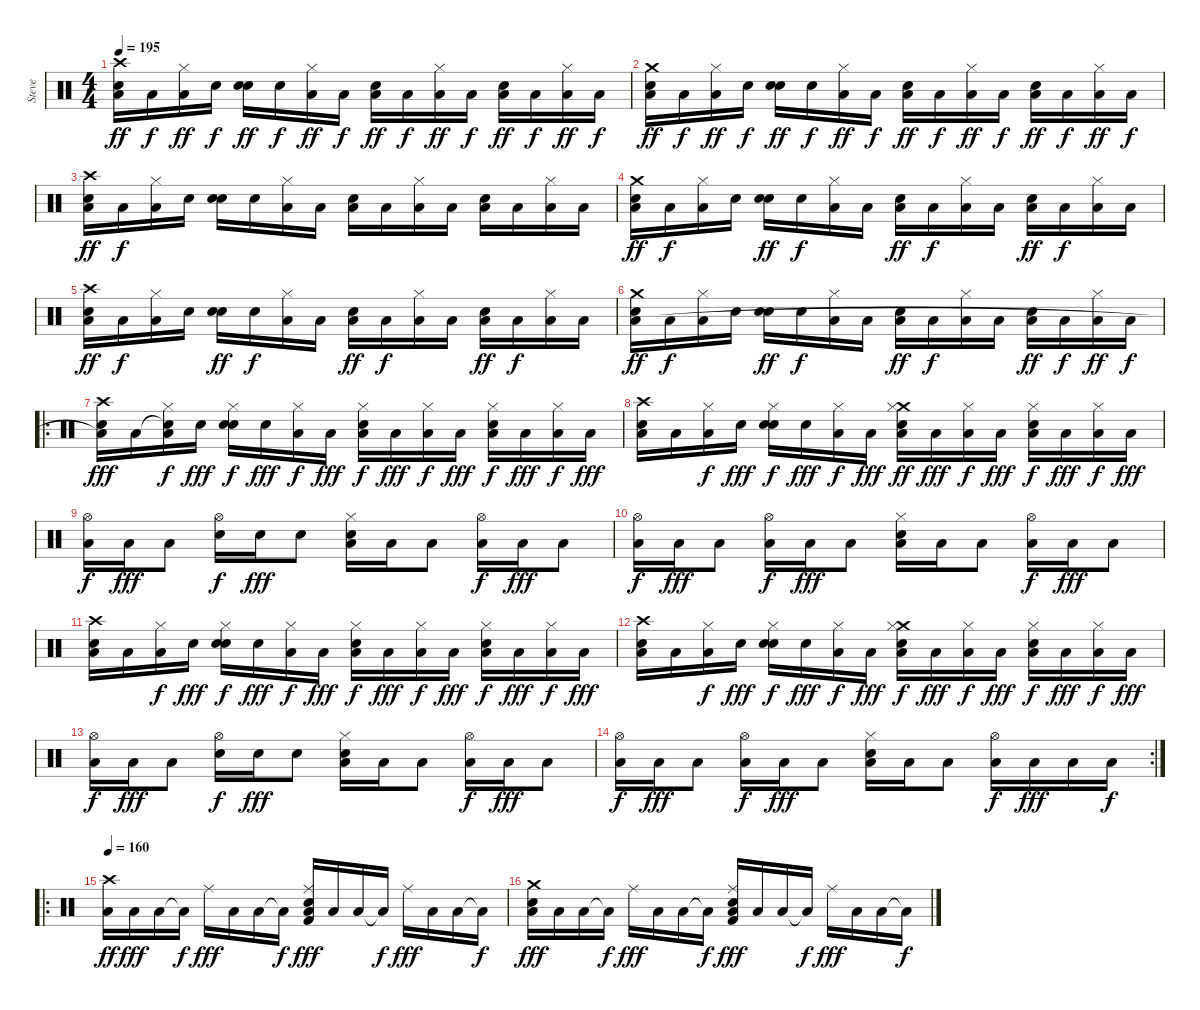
\track ("Steve" "Steve") {instrument percussion}
\staff {score}
\articulation defaults
\ts (4 4)
\tempo 195
\clef neutral
\ks c
("Electric Snare (hit)" "Crash high (hit)" "Low Floor Tom (hit)").16{dy ff} "Low Floor Tom (hit)".16{dy f} ("Hi-Hat (closed)" "Low Floor Tom (hit)").16{dy ff} "Snare (hit)".16{dy f} ("Electric Snare (hit)" "Snare (hit)").16{dy ff} "Snare (hit)".16{dy f} ("Hi-Hat (closed)" "Low Floor Tom (hit)").16{dy ff} "Low Floor Tom (hit)".16{dy f} ("Electric Snare (hit)" "Low Floor Tom (hit)").16{dy ff} "Low Floor Tom (hit)".16{dy f} ("Hi-Hat (closed)" "Low Floor Tom (hit)").16{dy ff} "Low Floor Tom (hit)".16{dy f} ("Electric Snare (hit)" "Low Floor Tom (hit)").16{dy ff} "Low Floor Tom (hit)".16{dy f} ("Hi-Hat (closed)" "Low Floor Tom (hit)").16{dy ff} "Low Floor Tom (hit)".16{dy f} |
("Electric Snare (hit)" "Crash medium (hit)" "Low Floor Tom (hit)").16{dy ff} "Low Floor Tom (hit)".16{dy f} ("Hi-Hat (closed)" "Low Floor Tom (hit)").16{dy ff} "Snare (hit)".16{dy f} ("Electric Snare (hit)" "Snare (hit)").16{dy ff} "Snare (hit)".16{dy f} ("Hi-Hat (closed)" "Low Floor Tom (hit)").16{dy ff} "Low Floor Tom (hit)".16{dy f} ("Electric Snare (hit)" "Low Floor Tom (hit)").16{dy ff} "Low Floor Tom (hit)".16{dy f} ("Hi-Hat (closed)" "Low Floor Tom (hit)").16{dy ff} "Low Floor Tom (hit)".16{dy f} ("Electric Snare (hit)" "Low Floor Tom (hit)").16{dy ff} "Low Floor Tom (hit)".16{dy f} ("Hi-Hat (closed)" "Low Floor Tom (hit)").16{dy ff} "Low Floor Tom (hit)".16{dy f} |
("Electric Snare (hit)" "Crash high (hit)" "Low Floor Tom (hit)").16{dy ff} "Low Floor Tom (hit)".16{dy f} ("Hi-Hat (closed)" "Low Floor Tom (hit)").16 "Snare (hit)".16 ("Electric Snare (hit)" "Snare (hit)").16 "Snare (hit)".16 ("Hi-Hat (closed)" "Low Floor Tom (hit)").16 "Low Floor Tom (hit)".16 ("Electric Snare (hit)" "Low Floor Tom (hit)").16 "Low Floor Tom (hit)".16 ("Hi-Hat (closed)" "Low Floor Tom (hit)").16 "Low Floor Tom (hit)".16 ("Electric Snare (hit)" "Low Floor Tom (hit)").16 "Low Floor Tom (hit)".16 ("Hi-Hat (closed)" "Low Floor Tom (hit)").16 "Low Floor Tom (hit)".16 |
("Electric Snare (hit)" "Crash medium (hit)" "Low Floor Tom (hit)").16{dy ff} "Low Floor Tom (hit)".16{dy f} ("Hi-Hat (closed)" "Low Floor Tom (hit)").16 "Snare (hit)".16 ("Electric Snare (hit)" "Snare (hit)").16{dy ff} "Snare (hit)".16{dy f} ("Hi-Hat (closed)" "Low Floor Tom (hit)").16 "Low Floor Tom (hit)".16 ("Electric Snare (hit)" "Low Floor Tom (hit)").16{dy ff} "Low Floor Tom (hit)".16{dy f} ("Hi-Hat (closed)" "Low Floor Tom (hit)").16 "Low Floor Tom (hit)".16 ("Electric Snare (hit)" "Low Floor Tom (hit)").16{dy ff} "Low Floor Tom (hit)".16{dy f} ("Hi-Hat (closed)" "Low Floor Tom (hit)").16 "Low Floor Tom (hit)".16 |
("Electric Snare (hit)" "Crash high (hit)" "Low Floor Tom (hit)").16{dy ff} "Low Floor Tom (hit)".16{dy f} ("Hi-Hat (closed)" "Low Floor Tom (hit)").16 "Snare (hit)".16 ("Electric Snare (hit)" "Snare (hit)").16{dy ff} "Snare (hit)".16{dy f} ("Hi-Hat (closed)" "Low Floor Tom (hit)").16 "Low Floor Tom (hit)".16 ("Electric Snare (hit)" "Low Floor Tom (hit)").16{dy ff} "Low Floor Tom (hit)".16{dy f} ("Hi-Hat (closed)" "Low Floor Tom (hit)").16 "Low Floor Tom (hit)".16 ("Electric Snare (hit)" "Low Floor Tom (hit)").16{dy ff} "Low Floor Tom (hit)".16{dy f} ("Hi-Hat (closed)" "Low Floor Tom (hit)").16 "Low Floor Tom (hit)".16 |
("Electric Snare (hit)" "Crash medium (hit)" "Low Floor Tom (hit)").16{dy ff} "Low Floor Tom (hit)".16{dy f} ("Hi-Hat (closed)" "Low Floor Tom (hit)").16 "Snare (hit)".16 ("Electric Snare (hit)" "Snare (hit)").16{dy ff} "Snare (hit)".16{dy f} ("Hi-Hat (closed)" "Low Floor Tom (hit)").16 "Low Floor Tom (hit)".16 ("Electric Snare (hit)" "Low Floor Tom (hit)").16{dy ff} "Low Floor Tom (hit)".16{dy f} ("Hi-Hat (closed)" "Low Floor Tom (hit)").16 "Low Floor Tom (hit)".16 ("Electric Snare (hit)" "Low Floor Tom (hit)").16{dy ff} "Low Floor Tom (hit)".16{dy f} ("Hi-Hat (closed)" "Low Floor Tom (hit)").16{dy ff} "Low Floor Tom (hit)".16{dy f} |
\ro
("Electric Snare (hit)" "Crash high (hit)" "Low Floor Tom (hit)"{t}).16{dy fff} "Low Floor Tom (hit)".16 ("Snare (hit)"{t} "Hi-Hat (closed)" "Low Floor Tom (hit)").16{dy f} "Snare (hit)".16{dy fff} ("Electric Snare (hit)" "Hi-Hat (closed)" "Snare (hit)").16{dy f} "Snare (hit)".16{dy fff} ("Hi-Hat (closed)" "Low Floor Tom (hit)").16{dy f} "Low Floor Tom (hit)".16{dy fff} ("Electric Snare (hit)" "Hi-Hat (closed)" "Low Floor Tom (hit)").16{dy f} "Low Floor Tom (hit)".16{dy fff} ("Hi-Hat (closed)" "Low Floor Tom (hit)").16{dy f} "Low Floor Tom (hit)".16{dy fff} ("Electric Snare (hit)" "Hi-Hat (closed)" "Low Floor Tom (hit)").16{dy f} "Low Floor Tom (hit)".16{dy fff} ("Hi-Hat (closed)" "Low Floor Tom (hit)").16{dy f} "Low Floor Tom (hit)".16{dy fff} |
("Electric Snare (hit)" "Crash high (hit)" "Low Floor Tom (hit)").16 "Low Floor Tom (hit)".16 ("Hi-Hat (closed)" "Low Floor Tom (hit)").16{dy f} "Snare (hit)".16{dy fff} ("Electric Snare (hit)" "Hi-Hat (closed)" "Snare (hit)").16{dy f} "Snare (hit)".16{dy fff} ("Hi-Hat (closed)" "Low Floor Tom (hit)").16{dy f} "Low Floor Tom (hit)".16{dy fff} ("Electric Snare (hit)" "Crash medium (hit)" "Hi-Hat (closed)" "Low Floor Tom (hit)").16{dy ff} "Low Floor Tom (hit)".16{dy fff} ("Hi-Hat (closed)" "Low Floor Tom (hit)").16{dy f} "Low Floor Tom (hit)".16{dy fff} ("Electric Snare (hit)" "Hi-Hat (closed)" "Low Floor Tom (hit)").16{dy f} "Low Floor Tom (hit)".16{dy fff} ("Hi-Hat (closed)" "Low Floor Tom (hit)").16{dy f} "Low Floor Tom (hit)".16{dy fff} |
("Hi-Hat (open)" "Low Floor Tom (hit)").16{dy f} "Low Floor Tom (hit)".16{dy fff} "Low Floor Tom (hit)".8 ("Hi-Hat (open)" "Snare (hit)").16{dy f} "Snare (hit)".16{dy fff} "Snare (hit)".8 ("Electric Snare (hit)" "Hi-Hat (closed)" "Low Floor Tom (hit)").16 "Low Floor Tom (hit)".16 "Low Floor Tom (hit)".8 ("Hi-Hat (open)" "Low Floor Tom (hit)").16{dy f} "Low Floor Tom (hit)".16{dy fff} "Low Floor Tom (hit)".8 |
("Hi-Hat (open)" "Low Floor Tom (hit)").16{dy f} "Low Floor Tom (hit)".16{dy fff} "Low Floor Tom (hit)".8 ("Hi-Hat (open)" "Low Floor Tom (hit)").16{dy f} "Low Floor Tom (hit)".16{dy fff} "Low Floor Tom (hit)".8 ("Electric Snare (hit)" "Hi-Hat (closed)" "Low Floor Tom (hit)").16 "Low Floor Tom (hit)".16 "Low Floor Tom (hit)".8 ("Hi-Hat (open)" "Low Floor Tom (hit)").16{dy f} "Low Floor Tom (hit)".16{dy fff} "Low Floor Tom (hit)".8 |
("Electric Snare (hit)" "Crash high (hit)" "Low Floor Tom (hit)").16 "Low Floor Tom (hit)".16 ("Hi-Hat (closed)" "Low Floor Tom (hit)").16{dy f} "Snare (hit)".16{dy fff} ("Electric Snare (hit)" "Hi-Hat (closed)" "Snare (hit)").16{dy f} "Snare (hit)".16{dy fff} ("Hi-Hat (closed)" "Low Floor Tom (hit)").16{dy f} "Low Floor Tom (hit)".16{dy fff} ("Electric Snare (hit)" "Hi-Hat (closed)" "Low Floor Tom (hit)").16{dy f} "Low Floor Tom (hit)".16{dy fff} ("Hi-Hat (closed)" "Low Floor Tom (hit)").16{dy f} "Low Floor Tom (hit)".16{dy fff} ("Electric Snare (hit)" "Hi-Hat (closed)" "Low Floor Tom (hit)").16{dy f} "Low Floor Tom (hit)".16{dy fff} ("Hi-Hat (closed)" "Low Floor Tom (hit)").16{dy f} "Low Floor Tom (hit)".16{dy fff} |
("Electric Snare (hit)" "Crash high (hit)" "Low Floor Tom (hit)").16 "Low Floor Tom (hit)".16 ("Hi-Hat (closed)" "Low Floor Tom (hit)").16{dy f} "Snare (hit)".16{dy fff} ("Electric Snare (hit)" "Hi-Hat (closed)" "Snare (hit)").16{dy f} "Snare (hit)".16{dy fff} ("Hi-Hat (closed)" "Low Floor Tom (hit)").16{dy f} "Low Floor Tom (hit)".16{dy fff} ("Electric Snare (hit)" "Crash medium (hit)" "Hi-Hat (closed)" "Low Floor Tom (hit)").16{dy f} "Low Floor Tom (hit)".16{dy fff} ("Hi-Hat (closed)" "Low Floor Tom (hit)").16{dy f} "Low Floor Tom (hit)".16{dy fff} ("Electric Snare (hit)" "Hi-Hat (closed)" "Low Floor Tom (hit)").16{dy f} "Low Floor Tom (hit)".16{dy fff} ("Hi-Hat (closed)" "Low Floor Tom (hit)").16{dy f} "Low Floor Tom (hit)".16{dy fff} |
("Hi-Hat (open)" "Low Floor Tom (hit)").16{dy f} "Low Floor Tom (hit)".16{dy fff} "Low Floor Tom (hit)".8 ("Hi-Hat (open)" "Snare (hit)").16{dy f} "Snare (hit)".16{dy fff} "Snare (hit)".8 ("Electric Snare (hit)" "Hi-Hat (closed)" "Low Floor Tom (hit)").16 "Low Floor Tom (hit)".16 "Low Floor Tom (hit)".8 ("Hi-Hat (open)" "Low Floor Tom (hit)").16{dy f} "Low Floor Tom (hit)".16{dy fff} "Low Floor Tom (hit)".8 |
\rc 2
("Hi-Hat (open)" "Low Floor Tom (hit)").16{dy f} "Low Floor Tom (hit)".16{dy fff} "Low Floor Tom (hit)".8 ("Hi-Hat (open)" "Low Floor Tom (hit)").16{dy f} "Low Floor Tom (hit)".16{dy fff} "Low Floor Tom (hit)".8 ("Electric Snare (hit)" "Hi-Hat (closed)" "Low Floor Tom (hit)").16 "Low Floor Tom (hit)".16 "Low Floor Tom (hit)".8 ("Hi-Hat (open)" "Low Floor Tom (hit)").16{dy f} "Low Floor Tom (hit)".16{dy fff} "Low Floor Tom (hit)".16 "Low Floor Tom (hit)".16{dy f} |
\ro
\tempo 160
("Crash high (hit)" "Low Floor Tom (hit)").16{dy ff} "Low Floor Tom (hit)".16{dy fff} "Low Floor Tom (hit)".16 "Low Floor Tom (hit)"{t}.16{dy f} "Ride (middle)".16{dy fff} "Low Floor Tom (hit)".16 "Low Floor Tom (hit)".16 "Low Floor Tom (hit)"{t}.16{dy f} ("Electric Snare (hit)" "Kick (hit) 2" "Ride (middle)" "Low Floor Tom (hit)").16{dy fff} "Low Floor Tom (hit)".16 "Low Floor Tom (hit)".16 "Low Floor Tom (hit)"{t}.16{dy f} "Ride (middle)".16{dy fff} "Low Floor Tom (hit)".16 "Low Floor Tom (hit)".16 "Low Floor Tom (hit)"{t}.16{dy f} |
("Crash medium (hit)" "Electric Snare (hit)" "Low Floor Tom (hit)").16{dy fff} "Low Floor Tom (hit)".16 "Low Floor Tom (hit)".16 "Low Floor Tom (hit)"{t}.16{dy f} "Ride (middle)".16{dy fff} "Low Floor Tom (hit)".16 "Low Floor Tom (hit)".16 "Low Floor Tom (hit)"{t}.16{dy f} ("Electric Snare (hit)" "Kick (hit) 2" "Ride (middle)" "Low Floor Tom (hit)").16{dy fff} "Low Floor Tom (hit)".16 "Low Floor Tom (hit)".16 "Low Floor Tom (hit)"{t}.16{dy f} "Ride (middle)".16{dy fff} "Low Floor Tom (hit)".16 "Low Floor Tom (hit)".16 "Low Floor Tom (hit)"{t}.16{dy f}
